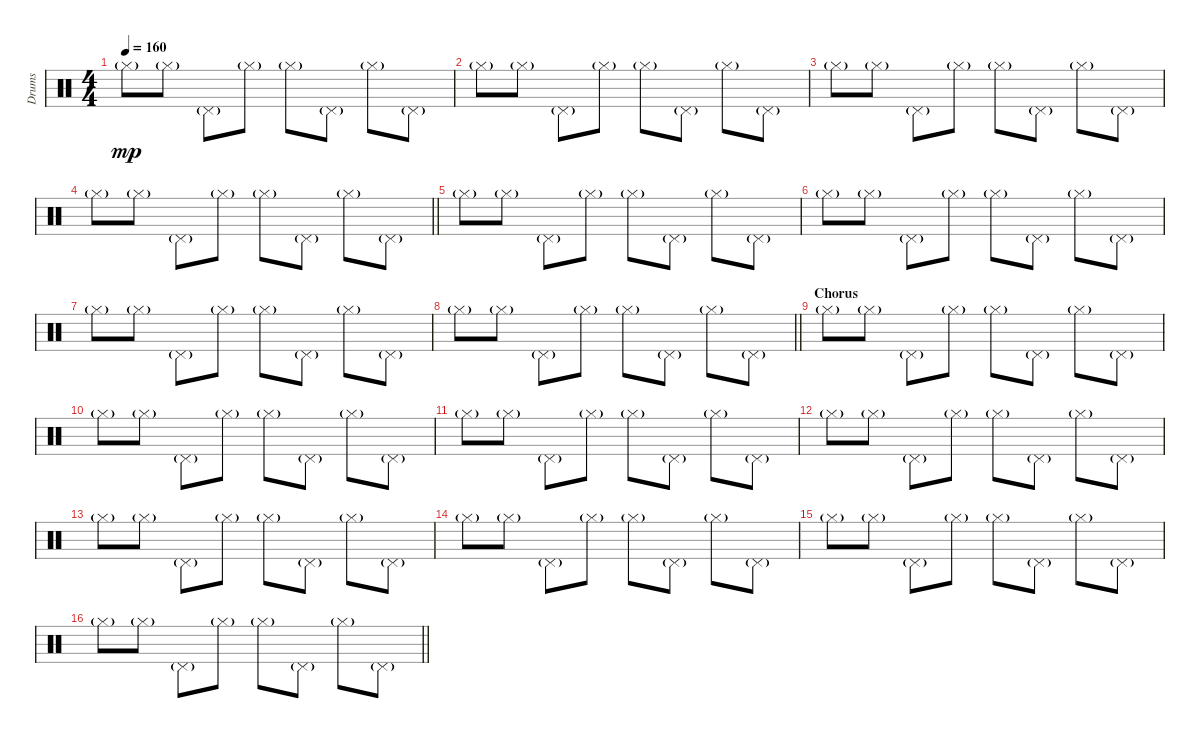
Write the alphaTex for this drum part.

\track ("Drums" "Drums") {instrument percussion}
\staff {score}
\articulation defaults
\ts (4 4)
\tempo 160
\clef neutral
\ks c "Hi-Hat (closed)"{g}.8{dy mp} "Hi-Hat (closed)"{g}.8 "Pedal Hi-Hat (hit)"{g}.8 "Hi-Hat (closed)"{g}.8 "Hi-Hat (closed)"{g}.8 "Pedal Hi-Hat (hit)"{g}.8 "Hi-Hat (closed)"{g}.8 "Pedal Hi-Hat (hit)"{g}.8
|
"Hi-Hat (closed)"{g}.8 "Hi-Hat (closed)"{g}.8 "Pedal Hi-Hat (hit)"{g}.8 "Hi-Hat (closed)"{g}.8 "Hi-Hat (closed)"{g}.8 "Pedal Hi-Hat (hit)"{g}.8 "Hi-Hat (closed)"{g}.8 "Pedal Hi-Hat (hit)"{g}.8 |
"Hi-Hat (closed)"{g}.8 "Hi-Hat (closed)"{g}.8 "Pedal Hi-Hat (hit)"{g}.8 "Hi-Hat (closed)"{g}.8 "Hi-Hat (closed)"{g}.8 "Pedal Hi-Hat (hit)"{g}.8 "Hi-Hat (closed)"{g}.8 "Pedal Hi-Hat (hit)"{g}.8 |
\barLineRight lightlight "Hi-Hat (closed)"{g}.8 "Hi-Hat (closed)"{g}.8 "Pedal Hi-Hat (hit)"{g}.8 "Hi-Hat (closed)"{g}.8 "Hi-Hat (closed)"{g}.8 "Pedal Hi-Hat (hit)"{g}.8 "Hi-Hat (closed)"{g}.8 "Pedal Hi-Hat (hit)"{g}.8
|
"Hi-Hat (closed)"{g}.8 "Hi-Hat (closed)"{g}.8 "Pedal Hi-Hat (hit)"{g}.8 "Hi-Hat (closed)"{g}.8 "Hi-Hat (closed)"{g}.8 "Pedal Hi-Hat (hit)"{g}.8 "Hi-Hat (closed)"{g}.8 "Pedal Hi-Hat (hit)"{g}.8 |
"Hi-Hat (closed)"{g}.8 "Hi-Hat (closed)"{g}.8 "Pedal Hi-Hat (hit)"{g}.8 "Hi-Hat (closed)"{g}.8 "Hi-Hat (closed)"{g}.8 "Pedal Hi-Hat (hit)"{g}.8 "Hi-Hat (closed)"{g}.8 "Pedal Hi-Hat (hit)"{g}.8 |
"Hi-Hat (closed)"{g}.8 "Hi-Hat (closed)"{g}.8 "Pedal Hi-Hat (hit)"{g}.8 "Hi-Hat (closed)"{g}.8 "Hi-Hat (closed)"{g}.8 "Pedal Hi-Hat (hit)"{g}.8 "Hi-Hat (closed)"{g}.8 "Pedal Hi-Hat (hit)"{g}.8 |
\barLineRight lightlight "Hi-Hat (closed)"{g}.8 "Hi-Hat (closed)"{g}.8 "Pedal Hi-Hat (hit)"{g}.8 "Hi-Hat (closed)"{g}.8 "Hi-Hat (closed)"{g}.8 "Pedal Hi-Hat (hit)"{g}.8 "Hi-Hat (closed)"{g}.8 "Pedal Hi-Hat (hit)"{g}.8
|
\section ("" "Chorus")
"Hi-Hat (closed)"{g}.8 "Hi-Hat (closed)"{g}.8 "Pedal Hi-Hat (hit)"{g}.8 "Hi-Hat (closed)"{g}.8 "Hi-Hat (closed)"{g}.8 "Pedal Hi-Hat (hit)"{g}.8 "Hi-Hat (closed)"{g}.8 "Pedal Hi-Hat (hit)"{g}.8 |
"Hi-Hat (closed)"{g}.8 "Hi-Hat (closed)"{g}.8 "Pedal Hi-Hat (hit)"{g}.8 "Hi-Hat (closed)"{g}.8 "Hi-Hat (closed)"{g}.8 "Pedal Hi-Hat (hit)"{g}.8 "Hi-Hat (closed)"{g}.8 "Pedal Hi-Hat (hit)"{g}.8 |
"Hi-Hat (closed)"{g}.8 "Hi-Hat (closed)"{g}.8 "Pedal Hi-Hat (hit)"{g}.8 "Hi-Hat (closed)"{g}.8 "Hi-Hat (closed)"{g}.8 "Pedal Hi-Hat (hit)"{g}.8 "Hi-Hat (closed)"{g}.8 "Pedal Hi-Hat (hit)"{g}.8 |
"Hi-Hat (closed)"{g}.8 "Hi-Hat (closed)"{g}.8 "Pedal Hi-Hat (hit)"{g}.8 "Hi-Hat (closed)"{g}.8 "Hi-Hat (closed)"{g}.8 "Pedal Hi-Hat (hit)"{g}.8 "Hi-Hat (closed)"{g}.8 "Pedal Hi-Hat (hit)"{g}.8 |
"Hi-Hat (closed)"{g}.8 "Hi-Hat (closed)"{g}.8 "Pedal Hi-Hat (hit)"{g}.8 "Hi-Hat (closed)"{g}.8 "Hi-Hat (closed)"{g}.8 "Pedal Hi-Hat (hit)"{g}.8 "Hi-Hat (closed)"{g}.8 "Pedal Hi-Hat (hit)"{g}.8 |
"Hi-Hat (closed)"{g}.8 "Hi-Hat (closed)"{g}.8 "Pedal Hi-Hat (hit)"{g}.8 "Hi-Hat (closed)"{g}.8 "Hi-Hat (closed)"{g}.8 "Pedal Hi-Hat (hit)"{g}.8 "Hi-Hat (closed)"{g}.8 "Pedal Hi-Hat (hit)"{g}.8 |
"Hi-Hat (closed)"{g}.8 "Hi-Hat (closed)"{g}.8 "Pedal Hi-Hat (hit)"{g}.8 "Hi-Hat (closed)"{g}.8 "Hi-Hat (closed)"{g}.8 "Pedal Hi-Hat (hit)"{g}.8 "Hi-Hat (closed)"{g}.8 "Pedal Hi-Hat (hit)"{g}.8 |
\barLineRight lightlight "Hi-Hat (closed)"{g}.8 "Hi-Hat (closed)"{g}.8 "Pedal Hi-Hat (hit)"{g}.8 "Hi-Hat (closed)"{g}.8 "Hi-Hat (closed)"{g}.8 "Pedal Hi-Hat (hit)"{g}.8 "Hi-Hat (closed)"{g}.8 "Pedal Hi-Hat (hit)"{g}.8
